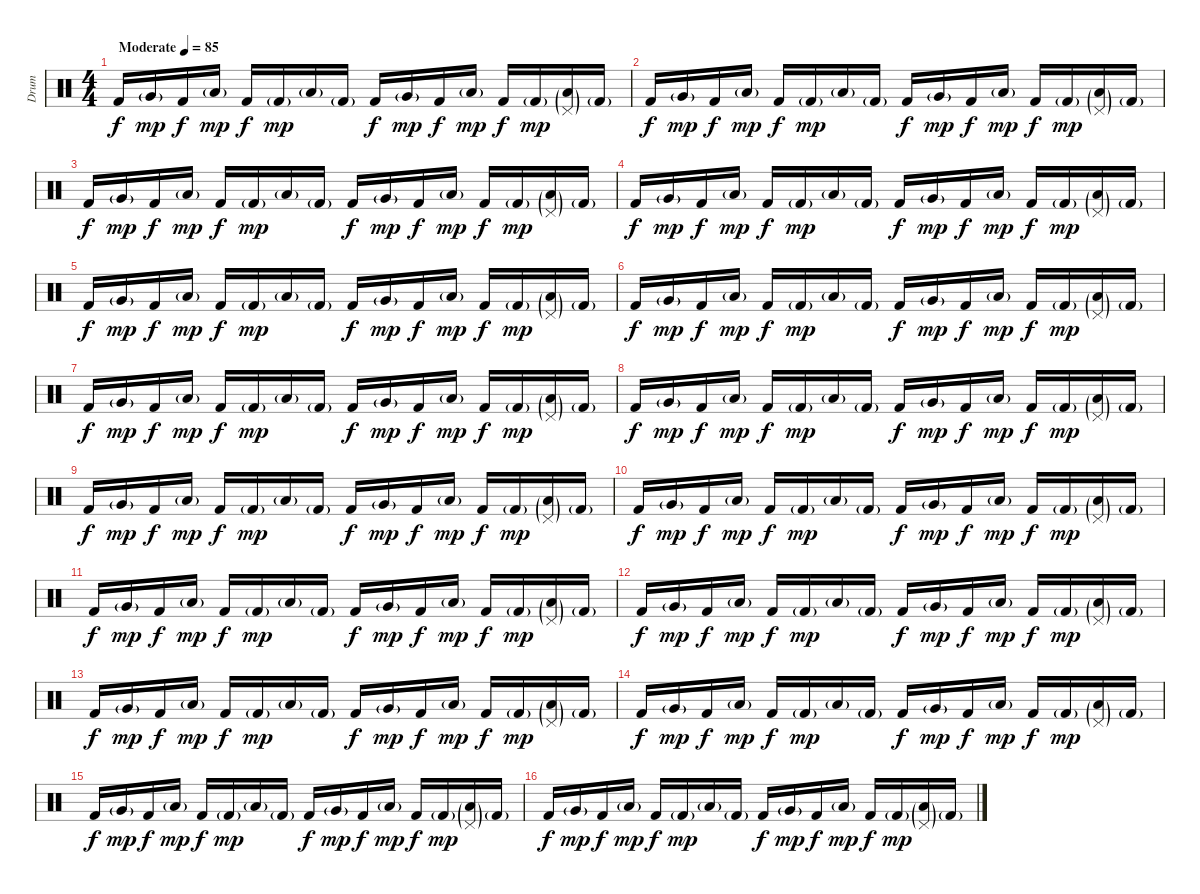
\track ("Drum" "Drum") {instrument percussion}
\staff {score}
\articulation defaults
\ts (4 4)
\tempo (85 "Moderate")
\clef neutral
\ks c "Kick (hit) 2".16{dy f} "Very Low Tom (hit)"{g}.16{dy mp} "Kick (hit) 2".16{dy f} "Low Floor Tom (hit)"{g}.16{dy mp} "Kick (hit) 2".16{dy f} "Kick (hit) 2"{g}.16{dy mp} "Low Floor Tom (hit)"{g}.16 "Kick (hit) 2"{g}.16 "Kick (hit) 2".16{dy f} "Very Low Tom (hit)"{g}.16{dy mp} "Kick (hit) 2".16{dy f} "Low Floor Tom (hit)"{g}.16{dy mp} "Kick (hit) 2".16{dy f} "Kick (hit) 2"{g}.16{dy mp}
("Low Floor Tom (hit)"{g} "Pedal Hi-Hat (hit)"{g}).16 "Kick (hit) 2"{g}.16 |
"Kick (hit) 2".16{dy f} "Very Low Tom (hit)"{g}.16{dy mp} "Kick (hit) 2".16{dy f} "Low Floor Tom (hit)"{g}.16{dy mp} "Kick (hit) 2".16{dy f} "Kick (hit) 2"{g}.16{dy mp} "Low Floor Tom (hit)"{g}.16 "Kick (hit) 2"{g}.16 "Kick (hit) 2".16{dy f} "Very Low Tom (hit)"{g}.16{dy mp} "Kick (hit) 2".16{dy f} "Low Floor Tom (hit)"{g}.16{dy mp} "Kick (hit) 2".16{dy f} "Kick (hit) 2"{g}.16{dy mp} ("Low Floor Tom (hit)"{g} "Pedal Hi-Hat (hit)"{g}).16 "Kick (hit) 2"{g}.16 |
"Kick (hit) 2".16{dy f} "Very Low Tom (hit)"{g}.16{dy mp} "Kick (hit) 2".16{dy f} "Low Floor Tom (hit)"{g}.16{dy mp} "Kick (hit) 2".16{dy f} "Kick (hit) 2"{g}.16{dy mp} "Low Floor Tom (hit)"{g}.16 "Kick (hit) 2"{g}.16 "Kick (hit) 2".16{dy f} "Very Low Tom (hit)"{g}.16{dy mp} "Kick (hit) 2".16{dy f} "Low Floor Tom (hit)"{g}.16{dy mp} "Kick (hit) 2".16{dy f} "Kick (hit) 2"{g}.16{dy mp} ("Low Floor Tom (hit)"{g} "Pedal Hi-Hat (hit)"{g}).16 "Kick (hit) 2"{g}.16 |
"Kick (hit) 2".16{dy f} "Very Low Tom (hit)"{g}.16{dy mp} "Kick (hit) 2".16{dy f} "Low Floor Tom (hit)"{g}.16{dy mp} "Kick (hit) 2".16{dy f} "Kick (hit) 2"{g}.16{dy mp} "Low Floor Tom (hit)"{g}.16 "Kick (hit) 2"{g}.16 "Kick (hit) 2".16{dy f} "Very Low Tom (hit)"{g}.16{dy mp} "Kick (hit) 2".16{dy f} "Low Floor Tom (hit)"{g}.16{dy mp} "Kick (hit) 2".16{dy f} "Kick (hit) 2"{g}.16{dy mp} ("Low Floor Tom (hit)"{g} "Pedal Hi-Hat (hit)"{g}).16 "Kick (hit) 2"{g}.16 |
"Kick (hit) 2".16{dy f} "Very Low Tom (hit)"{g}.16{dy mp} "Kick (hit) 2".16{dy f} "Low Floor Tom (hit)"{g}.16{dy mp} "Kick (hit) 2".16{dy f} "Kick (hit) 2"{g}.16{dy mp} "Low Floor Tom (hit)"{g}.16 "Kick (hit) 2"{g}.16 "Kick (hit) 2".16{dy f} "Very Low Tom (hit)"{g}.16{dy mp} "Kick (hit) 2".16{dy f} "Low Floor Tom (hit)"{g}.16{dy mp} "Kick (hit) 2".16{dy f} "Kick (hit) 2"{g}.16{dy mp} ("Low Floor Tom (hit)"{g} "Pedal Hi-Hat (hit)"{g}).16 "Kick (hit) 2"{g}.16 |
"Kick (hit) 2".16{dy f} "Very Low Tom (hit)"{g}.16{dy mp} "Kick (hit) 2".16{dy f} "Low Floor Tom (hit)"{g}.16{dy mp} "Kick (hit) 2".16{dy f} "Kick (hit) 2"{g}.16{dy mp} "Low Floor Tom (hit)"{g}.16 "Kick (hit) 2"{g}.16 "Kick (hit) 2".16{dy f} "Very Low Tom (hit)"{g}.16{dy mp} "Kick (hit) 2".16{dy f} "Low Floor Tom (hit)"{g}.16{dy mp} "Kick (hit) 2".16{dy f} "Kick (hit) 2"{g}.16{dy mp} ("Low Floor Tom (hit)"{g} "Pedal Hi-Hat (hit)"{g}).16 "Kick (hit) 2"{g}.16 |
"Kick (hit) 2".16{dy f} "Very Low Tom (hit)"{g}.16{dy mp} "Kick (hit) 2".16{dy f} "Low Floor Tom (hit)"{g}.16{dy mp} "Kick (hit) 2".16{dy f} "Kick (hit) 2"{g}.16{dy mp} "Low Floor Tom (hit)"{g}.16 "Kick (hit) 2"{g}.16 "Kick (hit) 2".16{dy f} "Very Low Tom (hit)"{g}.16{dy mp} "Kick (hit) 2".16{dy f} "Low Floor Tom (hit)"{g}.16{dy mp} "Kick (hit) 2".16{dy f} "Kick (hit) 2"{g}.16{dy mp} ("Low Floor Tom (hit)"{g} "Pedal Hi-Hat (hit)"{g}).16 "Kick (hit) 2"{g}.16 |
"Kick (hit) 2".16{dy f} "Very Low Tom (hit)"{g}.16{dy mp} "Kick (hit) 2".16{dy f} "Low Floor Tom (hit)"{g}.16{dy mp} "Kick (hit) 2".16{dy f} "Kick (hit) 2"{g}.16{dy mp} "Low Floor Tom (hit)"{g}.16 "Kick (hit) 2"{g}.16 "Kick (hit) 2".16{dy f} "Very Low Tom (hit)"{g}.16{dy mp} "Kick (hit) 2".16{dy f} "Low Floor Tom (hit)"{g}.16{dy mp} "Kick (hit) 2".16{dy f} "Kick (hit) 2"{g}.16{dy mp} ("Low Floor Tom (hit)"{g} "Pedal Hi-Hat (hit)"{g}).16 "Kick (hit) 2"{g}.16 |
"Kick (hit) 2".16{dy f} "Very Low Tom (hit)"{g}.16{dy mp} "Kick (hit) 2".16{dy f} "Low Floor Tom (hit)"{g}.16{dy mp} "Kick (hit) 2".16{dy f} "Kick (hit) 2"{g}.16{dy mp} "Low Floor Tom (hit)"{g}.16 "Kick (hit) 2"{g}.16 "Kick (hit) 2".16{dy f} "Very Low Tom (hit)"{g}.16{dy mp} "Kick (hit) 2".16{dy f} "Low Floor Tom (hit)"{g}.16{dy mp} "Kick (hit) 2".16{dy f} "Kick (hit) 2"{g}.16{dy mp} ("Low Floor Tom (hit)"{g} "Pedal Hi-Hat (hit)"{g}).16 "Kick (hit) 2"{g}.16 |
"Kick (hit) 2".16{dy f} "Very Low Tom (hit)"{g}.16{dy mp} "Kick (hit) 2".16{dy f} "Low Floor Tom (hit)"{g}.16{dy mp} "Kick (hit) 2".16{dy f} "Kick (hit) 2"{g}.16{dy mp} "Low Floor Tom (hit)"{g}.16 "Kick (hit) 2"{g}.16 "Kick (hit) 2".16{dy f} "Very Low Tom (hit)"{g}.16{dy mp} "Kick (hit) 2".16{dy f} "Low Floor Tom (hit)"{g}.16{dy mp} "Kick (hit) 2".16{dy f} "Kick (hit) 2"{g}.16{dy mp} ("Low Floor Tom (hit)"{g} "Pedal Hi-Hat (hit)"{g}).16 "Kick (hit) 2"{g}.16 |
"Kick (hit) 2".16{dy f} "Very Low Tom (hit)"{g}.16{dy mp} "Kick (hit) 2".16{dy f} "Low Floor Tom (hit)"{g}.16{dy mp} "Kick (hit) 2".16{dy f} "Kick (hit) 2"{g}.16{dy mp} "Low Floor Tom (hit)"{g}.16 "Kick (hit) 2"{g}.16 "Kick (hit) 2".16{dy f} "Very Low Tom (hit)"{g}.16{dy mp} "Kick (hit) 2".16{dy f} "Low Floor Tom (hit)"{g}.16{dy mp} "Kick (hit) 2".16{dy f} "Kick (hit) 2"{g}.16{dy mp} ("Low Floor Tom (hit)"{g} "Pedal Hi-Hat (hit)"{g}).16 "Kick (hit) 2"{g}.16 |
"Kick (hit) 2".16{dy f} "Very Low Tom (hit)"{g}.16{dy mp} "Kick (hit) 2".16{dy f} "Low Floor Tom (hit)"{g}.16{dy mp} "Kick (hit) 2".16{dy f} "Kick (hit) 2"{g}.16{dy mp} "Low Floor Tom (hit)"{g}.16 "Kick (hit) 2"{g}.16 "Kick (hit) 2".16{dy f} "Very Low Tom (hit)"{g}.16{dy mp} "Kick (hit) 2".16{dy f} "Low Floor Tom (hit)"{g}.16{dy mp} "Kick (hit) 2".16{dy f} "Kick (hit) 2"{g}.16{dy mp} ("Low Floor Tom (hit)"{g} "Pedal Hi-Hat (hit)"{g}).16 "Kick (hit) 2"{g}.16 |
"Kick (hit) 2".16{dy f} "Very Low Tom (hit)"{g}.16{dy mp} "Kick (hit) 2".16{dy f} "Low Floor Tom (hit)"{g}.16{dy mp} "Kick (hit) 2".16{dy f} "Kick (hit) 2"{g}.16{dy mp} "Low Floor Tom (hit)"{g}.16 "Kick (hit) 2"{g}.16 "Kick (hit) 2".16{dy f} "Very Low Tom (hit)"{g}.16{dy mp} "Kick (hit) 2".16{dy f} "Low Floor Tom (hit)"{g}.16{dy mp} "Kick (hit) 2".16{dy f} "Kick (hit) 2"{g}.16{dy mp} ("Low Floor Tom (hit)"{g} "Pedal Hi-Hat (hit)"{g}).16 "Kick (hit) 2"{g}.16 |
"Kick (hit) 2".16{dy f} "Very Low Tom (hit)"{g}.16{dy mp} "Kick (hit) 2".16{dy f} "Low Floor Tom (hit)"{g}.16{dy mp} "Kick (hit) 2".16{dy f} "Kick (hit) 2"{g}.16{dy mp} "Low Floor Tom (hit)"{g}.16 "Kick (hit) 2"{g}.16 "Kick (hit) 2".16{dy f} "Very Low Tom (hit)"{g}.16{dy mp} "Kick (hit) 2".16{dy f} "Low Floor Tom (hit)"{g}.16{dy mp} "Kick (hit) 2".16{dy f} "Kick (hit) 2"{g}.16{dy mp} ("Low Floor Tom (hit)"{g} "Pedal Hi-Hat (hit)"{g}).16 "Kick (hit) 2"{g}.16 |
"Kick (hit) 2".16{dy f} "Very Low Tom (hit)"{g}.16{dy mp} "Kick (hit) 2".16{dy f} "Low Floor Tom (hit)"{g}.16{dy mp} "Kick (hit) 2".16{dy f} "Kick (hit) 2"{g}.16{dy mp} "Low Floor Tom (hit)"{g}.16 "Kick (hit) 2"{g}.16 "Kick (hit) 2".16{dy f} "Very Low Tom (hit)"{g}.16{dy mp} "Kick (hit) 2".16{dy f} "Low Floor Tom (hit)"{g}.16{dy mp} "Kick (hit) 2".16{dy f} "Kick (hit) 2"{g}.16{dy mp} ("Low Floor Tom (hit)"{g} "Pedal Hi-Hat (hit)"{g}).16 "Kick (hit) 2"{g}.16 |
"Kick (hit) 2".16{dy f} "Very Low Tom (hit)"{g}.16{dy mp} "Kick (hit) 2".16{dy f} "Low Floor Tom (hit)"{g}.16{dy mp} "Kick (hit) 2".16{dy f} "Kick (hit) 2"{g}.16{dy mp} "Low Floor Tom (hit)"{g}.16 "Kick (hit) 2"{g}.16 "Kick (hit) 2".16{dy f} "Very Low Tom (hit)"{g}.16{dy mp} "Kick (hit) 2".16{dy f} "Low Floor Tom (hit)"{g}.16{dy mp} "Kick (hit) 2".16{dy f} "Kick (hit) 2"{g}.16{dy mp} ("Low Floor Tom (hit)"{g} "Pedal Hi-Hat (hit)"{g}).16 "Kick (hit) 2"{g}.16
